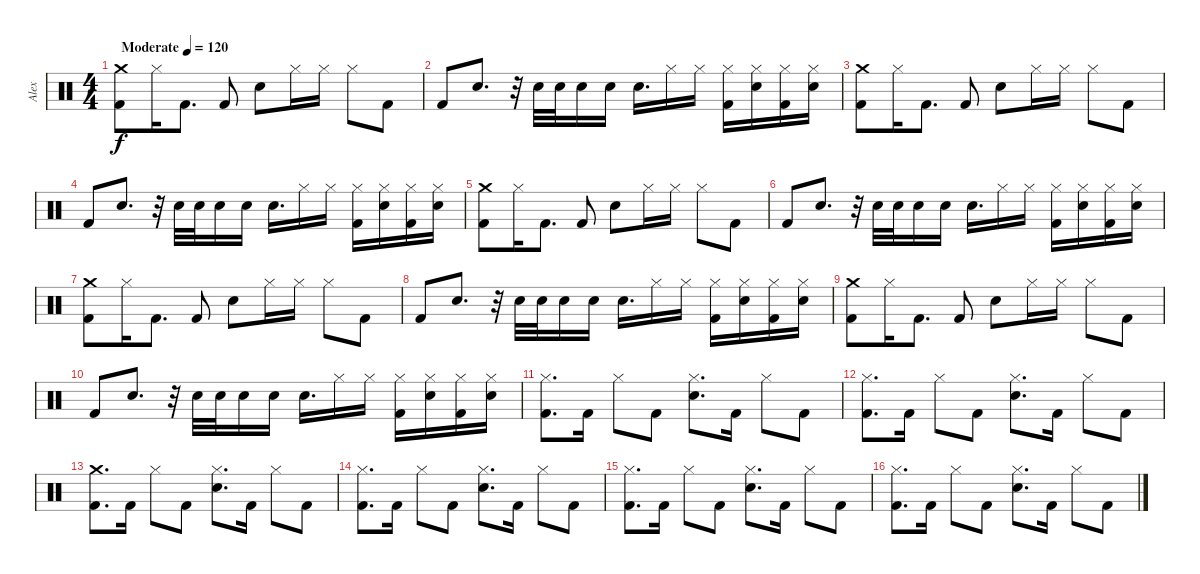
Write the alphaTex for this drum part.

\track ("Alex" "Alex") {instrument percussion}
\staff {score}
\articulation defaults
\ts (4 4)
\tempo (120 "Moderate")
\clef neutral
\ks c
("Crash medium (hit)" "Kick (hit) 2").8{dy f} "Hi-Hat (closed)".16 "Kick (hit) 2".8{d} "Kick (hit) 2".8 "Snare (hit) 2".8 "Hi-Hat (closed)".16 "Hi-Hat (closed)".16 "Hi-Hat (closed)".8 "Kick (hit) 2".8 |
"Kick (hit) 2".8 "Snare (hit) 2".8{d} r.32 "Snare (hit) 2".32 "Snare (hit) 2".32 "Snare (hit) 2".16 "Snare (hit) 2".16 "Snare (hit) 2".16{d} "Hi-Hat (closed)".16 "Hi-Hat (closed)".16 ("Hi-Hat (closed)" "Kick (hit) 2").16 ("Hi-Hat (closed)" "Snare (hit) 2").16 ("Hi-Hat (closed)" "Kick (hit) 2").16 ("Hi-Hat (closed)" "Snare (hit) 2").16 |
("Crash medium (hit)" "Kick (hit) 2").8 "Hi-Hat (closed)".16 "Kick (hit) 2".8{d} "Kick (hit) 2".8 "Snare (hit) 2".8 "Hi-Hat (closed)".16 "Hi-Hat (closed)".16 "Hi-Hat (closed)".8 "Kick (hit) 2".8 |
"Kick (hit) 2".8 "Snare (hit) 2".8{d} r.32 "Snare (hit) 2".32 "Snare (hit) 2".32 "Snare (hit) 2".16 "Snare (hit) 2".16 "Snare (hit) 2".16{d} "Hi-Hat (closed)".16 "Hi-Hat (closed)".16 ("Hi-Hat (closed)" "Kick (hit) 2").16 ("Hi-Hat (closed)" "Snare (hit) 2").16 ("Hi-Hat (closed)" "Kick (hit) 2").16 ("Hi-Hat (closed)" "Snare (hit) 2").16 |
("Crash medium (hit)" "Kick (hit) 2").8 "Hi-Hat (closed)".16 "Kick (hit) 2".8{d} "Kick (hit) 2".8 "Snare (hit) 2".8 "Hi-Hat (closed)".16 "Hi-Hat (closed)".16 "Hi-Hat (closed)".8 "Kick (hit) 2".8 |
"Kick (hit) 2".8 "Snare (hit) 2".8{d} r.32 "Snare (hit) 2".32 "Snare (hit) 2".32 "Snare (hit) 2".16 "Snare (hit) 2".16 "Snare (hit) 2".16{d} "Hi-Hat (closed)".16 "Hi-Hat (closed)".16 ("Hi-Hat (closed)" "Kick (hit) 2").16 ("Hi-Hat (closed)" "Snare (hit) 2").16 ("Hi-Hat (closed)" "Kick (hit) 2").16 ("Hi-Hat (closed)" "Snare (hit) 2").16 |
("Crash medium (hit)" "Kick (hit) 2").8 "Hi-Hat (closed)".16 "Kick (hit) 2".8{d} "Kick (hit) 2".8 "Snare (hit) 2".8 "Hi-Hat (closed)".16 "Hi-Hat (closed)".16 "Hi-Hat (closed)".8 "Kick (hit) 2".8 |
"Kick (hit) 2".8 "Snare (hit) 2".8{d} r.32 "Snare (hit) 2".32 "Snare (hit) 2".32 "Snare (hit) 2".16 "Snare (hit) 2".16 "Snare (hit) 2".16{d} "Hi-Hat (closed)".16 "Hi-Hat (closed)".16 ("Hi-Hat (closed)" "Kick (hit) 2").16 ("Hi-Hat (closed)" "Snare (hit) 2").16 ("Hi-Hat (closed)" "Kick (hit) 2").16 ("Hi-Hat (closed)" "Snare (hit) 2").16 |
("Crash medium (hit)" "Kick (hit) 2").8 "Hi-Hat (closed)".16 "Kick (hit) 2".8{d} "Kick (hit) 2".8 "Snare (hit) 2".8 "Hi-Hat (closed)".16 "Hi-Hat (closed)".16 "Hi-Hat (closed)".8 "Kick (hit) 2".8 |
"Kick (hit) 2".8 "Snare (hit) 2".8{d} r.32 "Snare (hit) 2".32 "Snare (hit) 2".32 "Snare (hit) 2".16 "Snare (hit) 2".16 "Snare (hit) 2".16{d} "Hi-Hat (closed)".16 "Hi-Hat (closed)".16 ("Hi-Hat (closed)" "Kick (hit) 2").16 ("Hi-Hat (closed)" "Snare (hit) 2").16 ("Hi-Hat (closed)" "Kick (hit) 2").16 ("Hi-Hat (closed)" "Snare (hit) 2").16 |
("Hi-Hat (closed)" "Kick (hit) 2").8{d} "Kick (hit) 2".16 "Hi-Hat (closed)".8 "Kick (hit) 2".8 ("Hi-Hat (closed)" "Snare (hit) 2").8{d} "Kick (hit) 2".16 "Hi-Hat (closed)".8 "Kick (hit) 2".8 |
("Hi-Hat (closed)" "Kick (hit) 2").8{d} "Kick (hit) 2".16 "Hi-Hat (closed)".8 "Kick (hit) 2".8 ("Hi-Hat (closed)" "Snare (hit) 2").8{d} "Kick (hit) 2".16 "Hi-Hat (closed)".8 "Kick (hit) 2".8 |
("Crash medium (hit)" "Kick (hit) 2").8{d} "Kick (hit) 2".16 "Hi-Hat (closed)".8 "Kick (hit) 2".8 ("Hi-Hat (closed)" "Snare (hit) 2").8{d} "Kick (hit) 2".16 "Hi-Hat (closed)".8 "Kick (hit) 2".8 |
("Hi-Hat (closed)" "Kick (hit) 2").8{d} "Kick (hit) 2".16 "Hi-Hat (closed)".8 "Kick (hit) 2".8 ("Hi-Hat (closed)" "Snare (hit) 2").8{d} "Kick (hit) 2".16 "Hi-Hat (closed)".8 "Kick (hit) 2".8 |
("Hi-Hat (closed)" "Kick (hit) 2").8{d} "Kick (hit) 2".16 "Hi-Hat (closed)".8 "Kick (hit) 2".8 ("Hi-Hat (closed)" "Snare (hit) 2").8{d} "Kick (hit) 2".16 "Hi-Hat (closed)".8 "Kick (hit) 2".8 |
("Hi-Hat (closed)" "Kick (hit) 2").8{d} "Kick (hit) 2".16 "Hi-Hat (closed)".8 "Kick (hit) 2".8 ("Hi-Hat (closed)" "Snare (hit) 2").8{d} "Kick (hit) 2".16 "Hi-Hat (closed)".8 "Kick (hit) 2".8
